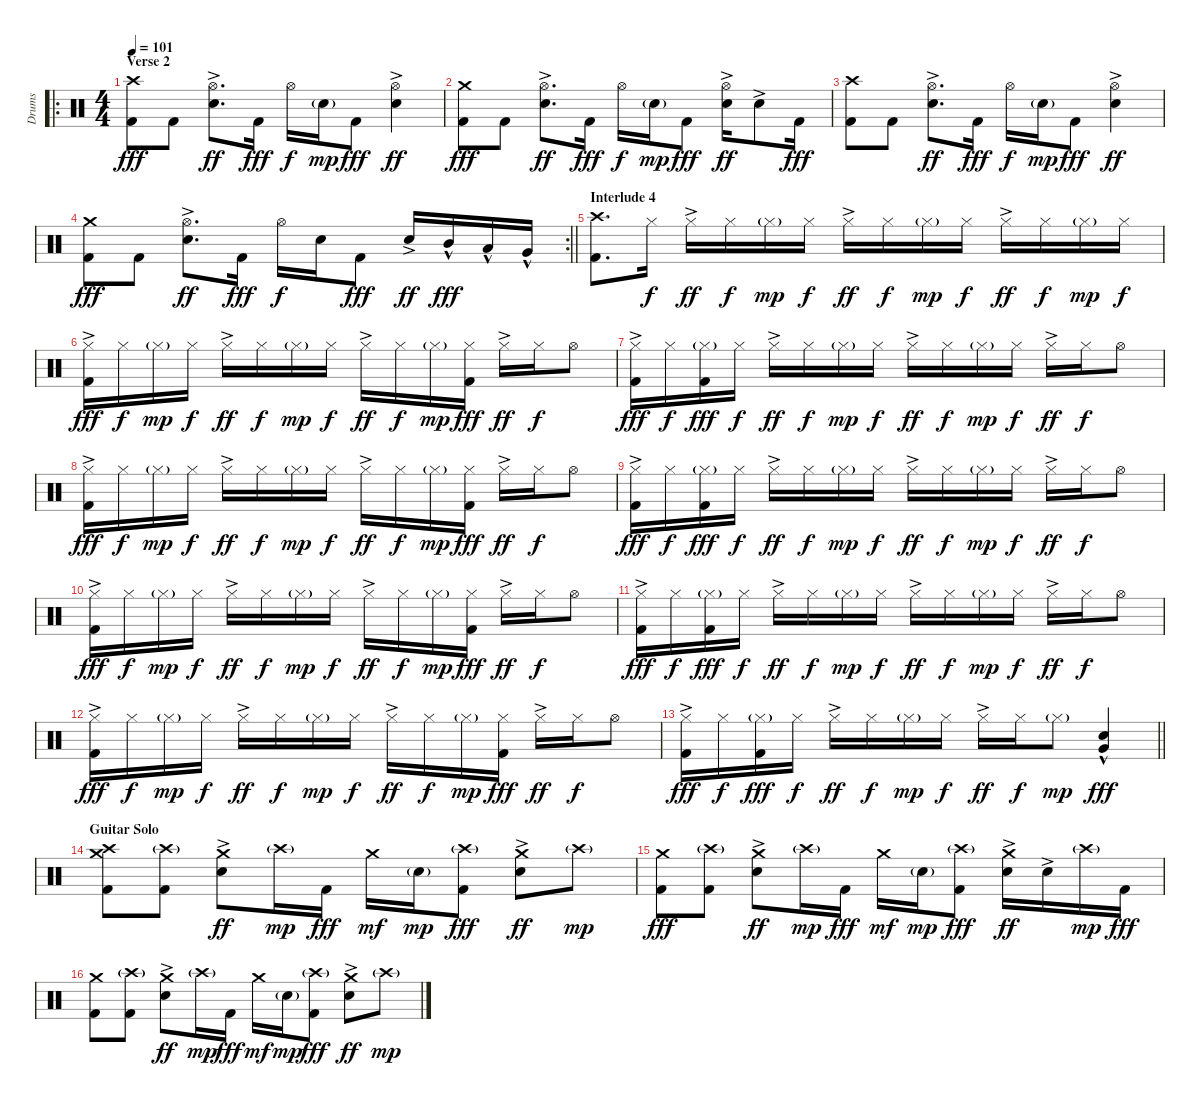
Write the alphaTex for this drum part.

\track ("Drums" "Drums") {instrument percussion}
\staff {score}
\articulation defaults
\ro
\ts (4 4)
\section ("" "Verse 2")
\tempo 101
\clef neutral
\ks c
("Crash high (hit)" "Kick (hit) 2").8{dy fff} "Kick (hit) 2".8 ("Hi-Hat (open)" "Electric Snare (hit)"{ac}).8{d dy ff} "Kick (hit) 2".16{dy fff} "Hi-Hat (open)".16{dy f} "Snare (hit) 2"{g}.16{dy mp} "Kick (hit) 2".8{dy fff} ("Hi-Hat (open)" "Electric Snare (hit)"{ac}).4{dy ff} |
("Crash medium (hit)" "Kick (hit) 2").8{dy fff} "Kick (hit) 2".8 ("Hi-Hat (open)" "Electric Snare (hit)"{ac}).8{d dy ff} "Kick (hit) 2".16{dy fff} "Hi-Hat (open)".16{dy f} "Snare (hit) 2"{g}.16{dy mp} "Kick (hit) 2".8{dy fff} ("Hi-Hat (open)" "Electric Snare (hit)"{ac}).16{dy ff} "Electric Snare (hit)"{ac}.8 "Kick (hit) 2".16{dy fff} |
("Crash high (hit)" "Kick (hit) 2").8 "Kick (hit) 2".8 ("Hi-Hat (open)" "Electric Snare (hit)"{ac}).8{d dy ff} "Kick (hit) 2".16{dy fff} "Hi-Hat (open)".16{dy f} "Snare (hit) 2"{g}.16{dy mp} "Kick (hit) 2".8{dy fff} ("Hi-Hat (open)" "Electric Snare (hit)"{ac}).4{dy ff} |
\rc 2
\barLineRight lightlight
("Crash medium (hit)" "Kick (hit) 2").8{dy fff} "Kick (hit) 2".8 ("Hi-Hat (open)" "Electric Snare (hit)"{ac}).8{d dy ff} "Kick (hit) 2".16{dy fff} "Hi-Hat (open)".16{dy f} "Electric Snare (hit)".16 "Kick (hit) 2".8{dy fff} "Electric Snare (hit)"{ac}.16{dy ff} "Mid Tom (hit)"{hac}.16{dy fff} "Low Tom (hit)"{hac}.16 "Very Low Tom (hit)"{hac}.16 |
\section ("" "Interlude 4")
("Crash high (hit)" "Kick (hit) 2").8{d} "Hi-Hat (closed)".16{dy f} "Hi-Hat (closed)"{ac}.16{dy ff} "Hi-Hat (closed)".16{dy f} "Hi-Hat (closed)"{g}.16{dy mp} "Hi-Hat (closed)".16{dy f} "Hi-Hat (closed)"{ac}.16{dy ff} "Hi-Hat (closed)".16{dy f} "Hi-Hat (closed)"{g}.16{dy mp} "Hi-Hat (closed)".16{dy f} "Hi-Hat (closed)"{ac}.16{dy ff} "Hi-Hat (closed)".16{dy f} "Hi-Hat (closed)"{g}.16{dy mp} "Hi-Hat (closed)".16{dy f} |
("Hi-Hat (closed)"{ac} "Kick (hit) 2").16{dy fff} "Hi-Hat (closed)".16{dy f} "Hi-Hat (closed)"{g}.16{dy mp} "Hi-Hat (closed)".16{dy f} "Hi-Hat (closed)"{ac}.16{dy ff} "Hi-Hat (closed)".16{dy f} "Hi-Hat (closed)"{g}.16{dy mp} "Hi-Hat (closed)".16{dy f} "Hi-Hat (closed)"{ac}.16{dy ff} "Hi-Hat (closed)".16{dy f} "Hi-Hat (closed)"{g}.16{dy mp} ("Hi-Hat (closed)" "Kick (hit) 2").16{dy fff} "Hi-Hat (closed)"{ac}.16{dy ff} "Hi-Hat (closed)".16{dy f} "Hi-Hat (open)".8 |
("Hi-Hat (closed)"{ac} "Kick (hit) 2").16{dy fff} "Hi-Hat (closed)".16{dy f} ("Hi-Hat (closed)"{g} "Kick (hit) 2").16{dy fff} "Hi-Hat (closed)".16{dy f} "Hi-Hat (closed)"{ac}.16{dy ff} "Hi-Hat (closed)".16{dy f} "Hi-Hat (closed)"{g}.16{dy mp} "Hi-Hat (closed)".16{dy f} "Hi-Hat (closed)"{ac}.16{dy ff} "Hi-Hat (closed)".16{dy f} "Hi-Hat (closed)"{g}.16{dy mp} "Hi-Hat (closed)".16{dy f} "Hi-Hat (closed)"{ac}.16{dy ff} "Hi-Hat (closed)".16{dy f} "Hi-Hat (open)".8 |
("Hi-Hat (closed)"{ac} "Kick (hit) 2").16{dy fff} "Hi-Hat (closed)".16{dy f} "Hi-Hat (closed)"{g}.16{dy mp} "Hi-Hat (closed)".16{dy f} "Hi-Hat (closed)"{ac}.16{dy ff} "Hi-Hat (closed)".16{dy f} "Hi-Hat (closed)"{g}.16{dy mp} "Hi-Hat (closed)".16{dy f} "Hi-Hat (closed)"{ac}.16{dy ff} "Hi-Hat (closed)".16{dy f} "Hi-Hat (closed)"{g}.16{dy mp} ("Hi-Hat (closed)" "Kick (hit) 2").16{dy fff} "Hi-Hat (closed)"{ac}.16{dy ff} "Hi-Hat (closed)".16{dy f} "Hi-Hat (open)".8 |
("Hi-Hat (closed)"{ac} "Kick (hit) 2").16{dy fff} "Hi-Hat (closed)".16{dy f} ("Hi-Hat (closed)"{g} "Kick (hit) 2").16{dy fff} "Hi-Hat (closed)".16{dy f} "Hi-Hat (closed)"{ac}.16{dy ff} "Hi-Hat (closed)".16{dy f} "Hi-Hat (closed)"{g}.16{dy mp} "Hi-Hat (closed)".16{dy f} "Hi-Hat (closed)"{ac}.16{dy ff} "Hi-Hat (closed)".16{dy f} "Hi-Hat (closed)"{g}.16{dy mp} "Hi-Hat (closed)".16{dy f} "Hi-Hat (closed)"{ac}.16{dy ff} "Hi-Hat (closed)".16{dy f} "Hi-Hat (open)".8 |
("Hi-Hat (closed)"{ac} "Kick (hit) 2").16{dy fff} "Hi-Hat (closed)".16{dy f} "Hi-Hat (closed)"{g}.16{dy mp} "Hi-Hat (closed)".16{dy f} "Hi-Hat (closed)"{ac}.16{dy ff} "Hi-Hat (closed)".16{dy f} "Hi-Hat (closed)"{g}.16{dy mp} "Hi-Hat (closed)".16{dy f} "Hi-Hat (closed)"{ac}.16{dy ff} "Hi-Hat (closed)".16{dy f} "Hi-Hat (closed)"{g}.16{dy mp} ("Hi-Hat (closed)" "Kick (hit) 2").16{dy fff} "Hi-Hat (closed)"{ac}.16{dy ff} "Hi-Hat (closed)".16{dy f} "Hi-Hat (open)".8 |
("Hi-Hat (closed)"{ac} "Kick (hit) 2").16{dy fff} "Hi-Hat (closed)".16{dy f} ("Hi-Hat (closed)"{g} "Kick (hit) 2").16{dy fff} "Hi-Hat (closed)".16{dy f} "Hi-Hat (closed)"{ac}.16{dy ff} "Hi-Hat (closed)".16{dy f} "Hi-Hat (closed)"{g}.16{dy mp} "Hi-Hat (closed)".16{dy f} "Hi-Hat (closed)"{ac}.16{dy ff} "Hi-Hat (closed)".16{dy f} "Hi-Hat (closed)"{g}.16{dy mp} "Hi-Hat (closed)".16{dy f} "Hi-Hat (closed)"{ac}.16{dy ff} "Hi-Hat (closed)".16{dy f} "Hi-Hat (open)".8 |
("Hi-Hat (closed)"{ac} "Kick (hit) 2").16{dy fff} "Hi-Hat (closed)".16{dy f} "Hi-Hat (closed)"{g}.16{dy mp} "Hi-Hat (closed)".16{dy f} "Hi-Hat (closed)"{ac}.16{dy ff} "Hi-Hat (closed)".16{dy f} "Hi-Hat (closed)"{g}.16{dy mp} "Hi-Hat (closed)".16{dy f} "Hi-Hat (closed)"{ac}.16{dy ff} "Hi-Hat (closed)".16{dy f} "Hi-Hat (closed)"{g}.16{dy mp} ("Hi-Hat (closed)" "Kick (hit) 2").16{dy fff} "Hi-Hat (closed)"{ac}.16{dy ff} "Hi-Hat (closed)".16{dy f} "Hi-Hat (open)".8 |
\barLineRight lightlight
("Hi-Hat (closed)"{ac} "Kick (hit) 2").16{dy fff} "Hi-Hat (closed)".16{dy f} ("Hi-Hat (closed)"{g} "Kick (hit) 2").16{dy fff} "Hi-Hat (closed)".16{dy f} "Hi-Hat (closed)"{ac}.16{dy ff} "Hi-Hat (closed)".16{dy f} "Hi-Hat (closed)"{g}.16{dy mp} "Hi-Hat (closed)".16{dy f} "Hi-Hat (closed)"{ac}.16{dy ff} "Hi-Hat (closed)".16{dy f} "Hi-Hat (closed)"{g}.8{dy mp} ("Electric Snare (hit)"{hac} "Very Low Tom (hit)"{hac}).4{dy fff} |
\section ("" "Guitar Solo")
("Crash medium (hit)" "Crash high (hit)" "Kick (hit) 2").8 ("Crash high (hit)"{g} "Kick (hit) 2").8 ("Crash medium (hit)" "Electric Snare (hit)"{ac}).8{dy ff} "Crash high (hit)"{g}.16{dy mp} "Kick (hit) 2".16{dy fff} "Crash medium (hit)".16{dy mf} "Snare (hit) 2"{g}.16{dy mp} ("Crash high (hit)"{g} "Kick (hit) 2").8{dy fff} ("Crash medium (hit)" "Electric Snare (hit)"{ac}).8{dy ff} "Crash high (hit)"{g}.8{dy mp} |
("Crash medium (hit)" "Kick (hit) 2").8{dy fff} ("Crash high (hit)"{g} "Kick (hit) 2").8 ("Crash medium (hit)" "Electric Snare (hit)"{ac}).8{dy ff} "Crash high (hit)"{g}.16{dy mp} "Kick (hit) 2".16{dy fff} "Crash medium (hit)".16{dy mf} "Snare (hit) 2"{g}.16{dy mp} ("Crash high (hit)"{g} "Kick (hit) 2").8{dy fff} ("Crash medium (hit)" "Electric Snare (hit)"{ac}).16{dy ff} "Electric Snare (hit)"{ac}.16 "Crash high (hit)"{g}.16{dy mp} "Kick (hit) 2".16{dy fff} |
("Crash medium (hit)" "Kick (hit) 2").8 ("Crash high (hit)"{g} "Kick (hit) 2").8 ("Crash medium (hit)" "Electric Snare (hit)"{ac}).8{dy ff} "Crash high (hit)"{g}.16{dy mp} "Kick (hit) 2".16{dy fff} "Crash medium (hit)".16{dy mf} "Snare (hit) 2"{g}.16{dy mp} ("Crash high (hit)"{g} "Kick (hit) 2").8{dy fff} ("Crash medium (hit)" "Electric Snare (hit)"{ac}).8{dy ff} "Crash high (hit)"{g}.8{dy mp}
